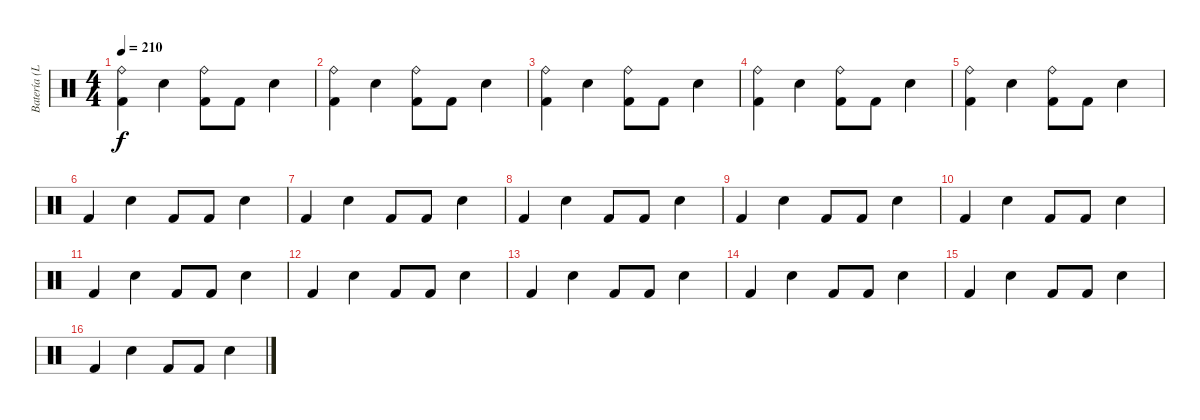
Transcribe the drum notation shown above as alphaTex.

\track ("Batería (Leo)" "Batería (L") {instrument percussion}
\staff {score}
\articulation defaults
\ts (4 4)
\tempo 210
\clef neutral
\ks c
("Ride (bell)" "Kick (hit) 2").4{dy f} "Snare (hit) 2".4 ("Ride (bell)" "Kick (hit) 2").8 "Kick (hit) 2".8 "Snare (hit) 2".4 |
("Ride (bell)" "Kick (hit) 2").4 "Snare (hit) 2".4 ("Ride (bell)" "Kick (hit) 2").8 "Kick (hit) 2".8 "Snare (hit) 2".4 |
("Ride (bell)" "Kick (hit) 2").4 "Snare (hit) 2".4 ("Ride (bell)" "Kick (hit) 2").8 "Kick (hit) 2".8 "Snare (hit) 2".4 |
("Ride (bell)" "Kick (hit) 2").4 "Snare (hit) 2".4 ("Ride (bell)" "Kick (hit) 2").8 "Kick (hit) 2".8 "Snare (hit) 2".4 |
("Ride (bell)" "Kick (hit) 2").4 "Snare (hit) 2".4 ("Ride (bell)" "Kick (hit) 2").8 "Kick (hit) 2".8 "Snare (hit) 2".4 |
"Kick (hit) 2".4 "Snare (hit) 2".4 "Kick (hit) 2".8 "Kick (hit) 2".8 "Snare (hit) 2".4 |
"Kick (hit) 2".4 "Snare (hit) 2".4 "Kick (hit) 2".8 "Kick (hit) 2".8 "Snare (hit) 2".4 |
"Kick (hit) 2".4 "Snare (hit) 2".4 "Kick (hit) 2".8 "Kick (hit) 2".8 "Snare (hit) 2".4 |
"Kick (hit) 2".4 "Snare (hit) 2".4 "Kick (hit) 2".8 "Kick (hit) 2".8 "Snare (hit) 2".4 |
"Kick (hit) 2".4 "Snare (hit) 2".4 "Kick (hit) 2".8 "Kick (hit) 2".8 "Snare (hit) 2".4 |
"Kick (hit) 2".4 "Snare (hit) 2".4 "Kick (hit) 2".8 "Kick (hit) 2".8 "Snare (hit) 2".4 |
"Kick (hit) 2".4 "Snare (hit) 2".4 "Kick (hit) 2".8 "Kick (hit) 2".8 "Snare (hit) 2".4 |
"Kick (hit) 2".4 "Snare (hit) 2".4 "Kick (hit) 2".8 "Kick (hit) 2".8 "Snare (hit) 2".4 |
"Kick (hit) 2".4 "Snare (hit) 2".4 "Kick (hit) 2".8 "Kick (hit) 2".8 "Snare (hit) 2".4 |
"Kick (hit) 2".4 "Snare (hit) 2".4 "Kick (hit) 2".8 "Kick (hit) 2".8 "Snare (hit) 2".4 |
"Kick (hit) 2".4 "Snare (hit) 2".4 "Kick (hit) 2".8 "Kick (hit) 2".8 "Snare (hit) 2".4
